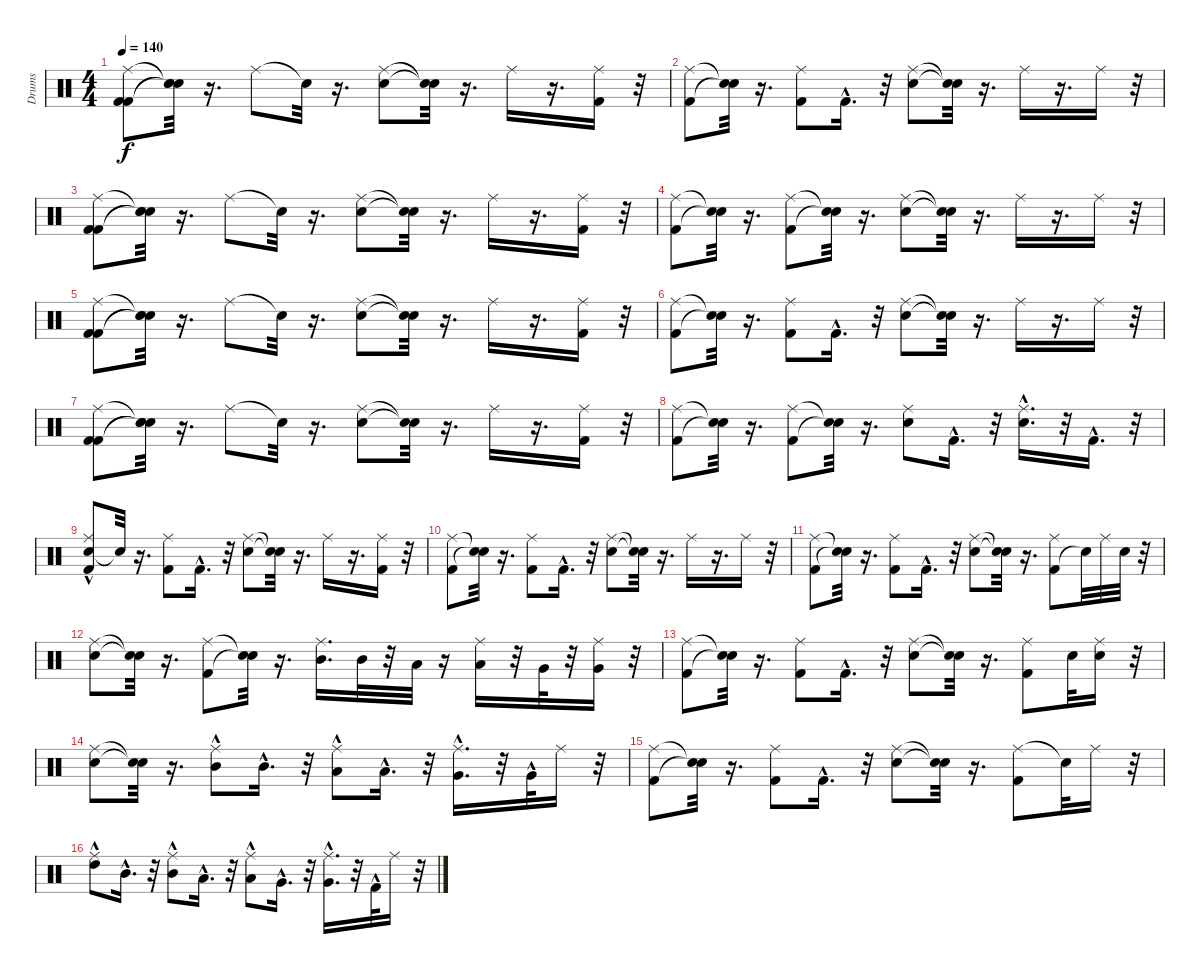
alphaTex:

\track ("Drums" "Drums") {instrument percussion}
\staff {score}
\articulation defaults
\ts (4 4)
\tempo 140
\clef neutral
\ks c
("Kick (hit) 2" "Ride (middle)" "Kick (hit) 2").8{dy f} ("Snare (hit)"{t} "Snare (hit)"{t} "Snare (hit)"{t}).32 r.16{d} "Ride (middle)".8 "Snare (hit)"{t}.32 r.16{d} ("Snare (hit) 2" "Ride (middle)").8 ("Snare (hit)"{t} "Snare (hit)"{t}).32 r.16{d} "Ride (middle)".16 r.16{d} ("Kick (hit) 2" "Ride (middle)").16 r.32 |
("Ride (middle)" "Kick (hit) 2").8 ("Snare (hit)"{t} "Snare (hit)"{t}).32 r.16{d} ("Ride (middle)" "Kick (hit) 2").8 "Kick (hit) 2"{hac}.16{d} r.32 ("Ride (middle)" "Snare (hit) 2").8 ("Snare (hit)"{t} "Snare (hit)"{t}).32 r.16{d} "Ride (middle)".16 r.16{d} "Ride (middle)".16 r.32 |
("Kick (hit) 2" "Kick (hit) 2" "Ride (middle)").8 ("Snare (hit)"{t} "Snare (hit)"{t} "Snare (hit)"{t}).32 r.16{d} "Ride (middle)".8 "Snare (hit)"{t}.32 r.16{d} ("Ride (middle)" "Snare (hit) 2").8 ("Snare (hit)"{t} "Snare (hit)"{t}).32 r.16{d} "Ride (middle)".16 r.16{d} ("Ride (middle)" "Kick (hit) 2").16 r.32 |
("Kick (hit) 2" "Ride (middle)").8 ("Snare (hit)"{t} "Snare (hit)"{t}).32 r.16{d} ("Ride (middle)" "Kick (hit) 2").8 ("Snare (hit)"{t} "Snare (hit)"{t}).32 r.16{d} ("Ride (middle)" "Snare (hit) 2").8 ("Snare (hit)"{t} "Snare (hit)"{t}).32 r.16{d} "Ride (middle)".16 r.16{d} "Ride (middle)".16 r.32 |
("Kick (hit) 2" "Kick (hit) 2" "Ride (middle)").8 ("Snare (hit)"{t} "Snare (hit)"{t} "Snare (hit)"{t}).32 r.16{d} "Ride (middle)".8 "Snare (hit)"{t}.32 r.16{d} ("Snare (hit) 2" "Ride (middle)").8 ("Snare (hit)"{t} "Snare (hit)"{t}).32 r.16{d} "Ride (middle)".16 r.16{d} ("Kick (hit) 2" "Ride (middle)").16 r.32 |
("Kick (hit) 2" "Ride (middle)").8 ("Snare (hit)"{t} "Snare (hit)"{t}).32 r.16{d} ("Ride (middle)" "Kick (hit) 2").8 "Kick (hit) 2"{hac}.16{d} r.32 ("Ride (middle)" "Snare (hit) 2").8 ("Snare (hit)"{t} "Snare (hit)"{t}).32 r.16{d} "Ride (middle)".16 r.16{d} "Ride (middle)".16 r.32 |
("Kick (hit) 2" "Ride (middle)" "Kick (hit) 2").8 ("Snare (hit)"{t} "Snare (hit)"{t} "Snare (hit)"{t}).32 r.16{d} "Ride (middle)".8 "Snare (hit)"{t}.32 r.16{d} ("Ride (middle)" "Snare (hit) 2").8 ("Snare (hit)"{t} "Snare (hit)"{t}).32 r.16{d} "Ride (middle)".16 r.16{d} ("Ride (middle)" "Kick (hit) 2").16 r.32 |
("Kick (hit) 2" "Ride (middle)").8 ("Snare (hit)"{t} "Snare (hit)"{t}).32 r.16{d} ("Ride (middle)" "Kick (hit) 2").8 ("Snare (hit)"{t} "Snare (hit)"{t}).32 r.16{d} ("Snare (hit) 2" "Ride (middle)").8 "Kick (hit) 2"{hac}.16{d} r.32 ("Snare (hit) 2"{hac} "Ride (middle)").16{d} r.32 "Kick (hit) 2"{hac}.16{d} r.32 |
("Snare (hit) 2"{hac} "Ride (middle)" "Kick (hit) 2"{hac}).8 "Snare (hit)"{t}.32 r.16{d} ("Kick (hit) 2" "Ride (middle)").8 "Kick (hit) 2"{hac}.16{d} r.32 ("Ride (middle)" "Snare (hit) 2").8 ("Snare (hit)"{t} "Snare (hit)"{t}).32 r.16{d} "Ride (middle)".16 r.16{d} ("Kick (hit) 2" "Ride (middle)").16 r.32 |
("Ride (middle)" "Kick (hit) 2").8 ("Snare (hit)"{t} "Snare (hit)"{t}).32 r.16{d} ("Kick (hit) 2" "Ride (middle)").8 "Kick (hit) 2"{hac}.16{d} r.32 ("Ride (middle)" "Snare (hit) 2").8 ("Snare (hit)"{t} "Snare (hit)"{t}).32 r.16{d} "Ride (middle)".16 r.16{d} "Ride (middle)".16 r.32 |
("Kick (hit) 2" "Ride (middle)").8 ("Snare (hit)"{t} "Snare (hit)"{t}).32 r.16{d} ("Ride (middle)" "Kick (hit) 2").8 "Kick (hit) 2"{hac}.16{d} r.32 ("Ride (middle)" "Snare (hit) 2").8 ("Snare (hit)"{t} "Snare (hit)"{t}).32 r.16{d} ("Kick (hit) 2" "Ride (middle)").8 "Snare (hit)"{t}.32 "Ride (middle)".32 "Snare (hit) 2".32 r.32 |
("Ride (middle)" "Snare (hit) 2").8 ("Snare (hit)"{t} "Snare (hit)"{t}).32 r.16{d} ("Ride (middle)" "Kick (hit) 2").8 ("Snare (hit)"{t} "Snare (hit)"{t}).32 r.16{d} ("Ride (middle)" "Mid Tom (hit)").16{d} "Mid Tom (hit)".32 r.32 "Low Tom (hit)".32 r.16 ("Ride (middle)" "Low Tom (hit)").16 r.32 "Very Low Tom (hit)".32 r.32 ("Very Low Tom (hit)" "Ride (middle)").16 r.32 |
("Kick (hit) 2" "Ride (middle)").8 ("Snare (hit)"{t} "Snare (hit)"{t}).32 r.16{d} ("Kick (hit) 2" "Ride (middle)").8 "Kick (hit) 2"{hac}.16{d} r.32 ("Snare (hit) 2" "Ride (middle)").8 ("Snare (hit)"{t} "Snare (hit)"{t}).32 r.16{d} ("Kick (hit) 2" "Ride (middle)").8 "Snare (hit) 2".32 ("Snare (hit) 2" "Ride (middle)").16 r.32 |
("Ride (middle)" "Snare (hit) 2").8 ("Snare (hit)"{t} "Snare (hit)"{t}).32 r.16{d} ("Mid Tom (hit)"{hac} "Ride (middle)").8 "Mid Tom (hit)"{hac}.16{d} r.32 ("Low Tom (hit)"{hac} "Ride (middle)").8 "Low Tom (hit)"{hac}.16{d} r.32 ("Ride (middle)" "Very Low Tom (hit)"{hac}).16{d} r.32 "Very Low Tom (hit)"{hac}.32 "Ride (middle)".16 r.32 |
("Ride (middle)" "Kick (hit) 2").8 ("Snare (hit)"{t} "Snare (hit)"{t}).32 r.16{d} ("Ride (middle)" "Kick (hit) 2").8 "Kick (hit) 2"{hac}.16{d} r.32 ("Ride (middle)" "Snare (hit) 2").8 ("Snare (hit)"{t} "Snare (hit)"{t}).32 r.16{d} ("Ride (middle)" "Kick (hit) 2").8 "Snare (hit)"{t}.32 "Ride (middle)".16 r.32 |
("High Tom (hit)"{hac} "Ride (middle)").8 "Mid Tom (hit)"{hac}.16{d} r.32 ("Mid Tom (hit)"{hac} "Ride (middle)").8 "Low Tom (hit)"{hac}.16{d} r.32 ("Ride (middle)" "Low Tom (hit)"{hac}).8 "Very Low Tom (hit)"{hac}.16{d} r.32 ("Very Low Tom (hit)"{hac} "Ride (middle)").16{d} r.32 "Kick (hit) 2"{hac}.32 "Ride (middle)".16 r.32
